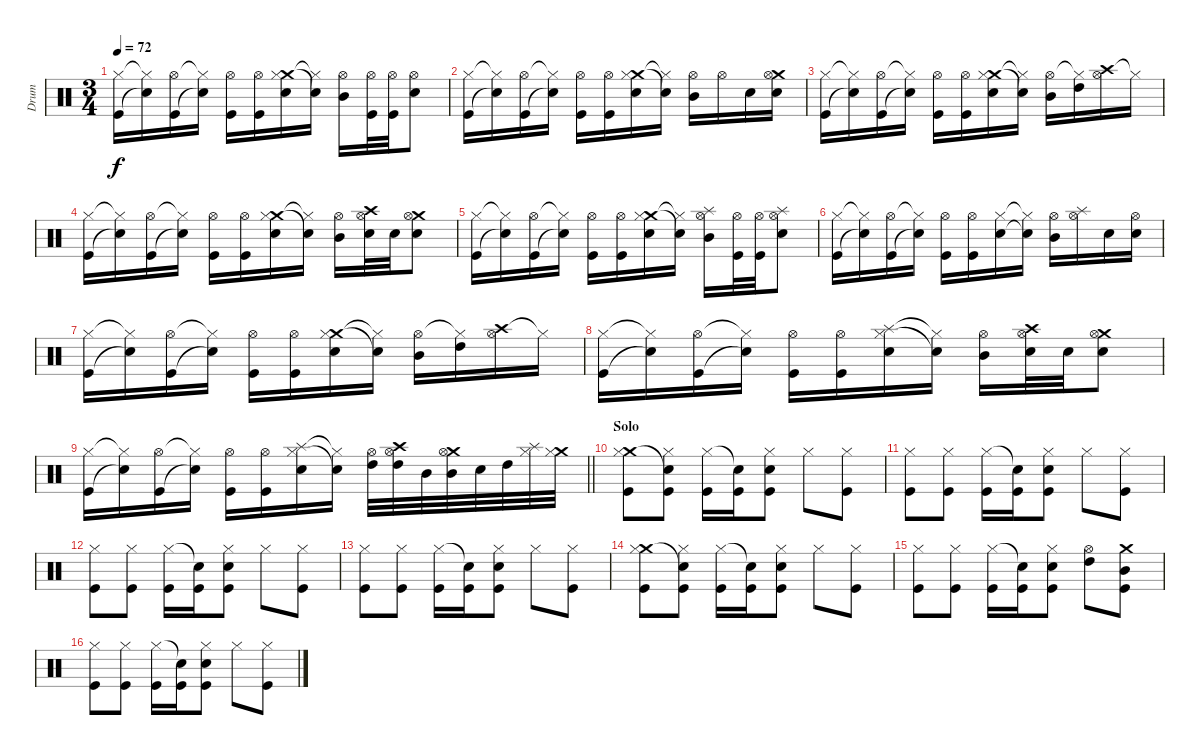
\track ("Drum" "Drum") {instrument percussion}
\staff {score}
\articulation defaults
\ts (3 4)
\tempo 72
\clef neutral
\ks c
("Hi-Hat (closed)" "Kick (hit)").16{dy f} ("Hi-Hat (closed)"{t} "Snare (hit)"{t}).16 ("Hi-Hat (open)" "Kick (hit)").16 ("Hi-Hat (closed)"{t} "Snare (hit)"{t}).16 ("Hi-Hat (open)" "Kick (hit)").16 ("Hi-Hat (open)" "Kick (hit)").16 ("Crash medium (hit)" "Hi-Hat (closed)" "Snare (hit) 2").16 ("Hi-Hat (closed)"{t} "Snare (hit)"{t}).16 ("Hi-Hat (open)" "Mid Tom (hit)").16 ("Hi-Hat (open)" "Kick (hit)").32 ("Hi-Hat (open)" "Kick (hit)").32 ("Hi-Hat (open)" "Snare (hit) 2").8 |
("Hi-Hat (closed)" "Kick (hit)").16 ("Hi-Hat (closed)"{t} "Snare (hit)"{t}).16 ("Hi-Hat (open)" "Kick (hit)").16 ("Hi-Hat (closed)"{t} "Snare (hit)"{t}).16 ("Hi-Hat (open)" "Kick (hit)").16 ("Hi-Hat (open)" "Kick (hit)").16 ("Crash medium (hit)" "Hi-Hat (closed)" "Snare (hit) 2").16 ("Hi-Hat (closed)"{t} "Snare (hit)"{t}).16 ("Hi-Hat (open)" "Mid Tom (hit)").16 "Hi-Hat (open)".16 "Snare (hit) 2".16 ("Crash medium (hit)" "Hi-Hat (open)" "Snare (hit) 2").16 |
("Hi-Hat (closed)" "Kick (hit)").16 ("Hi-Hat (closed)"{t} "Snare (hit)"{t}).16 ("Hi-Hat (open)" "Kick (hit)").16 ("Hi-Hat (closed)"{t} "Snare (hit)"{t}).16 ("Hi-Hat (open)" "Kick (hit)").16 ("Hi-Hat (open)" "Kick (hit)").16 ("Crash medium (hit)" "Hi-Hat (closed)" "Snare (hit) 2").16 ("Hi-Hat (closed)"{t} "Snare (hit)"{t}).16 ("Hi-Hat (open)" "Mid Tom (hit)").16 ("Hi-Hat (closed)"{t} "High Tom (hit)").16 ("Crash high (hit)" "Hi-Hat (open)").16 "Hi-Hat (closed)"{t}.16 |
("Hi-Hat (closed)" "Kick (hit)").16 ("Hi-Hat (closed)"{t} "Snare (hit)"{t}).16 ("Hi-Hat (open)" "Kick (hit)").16 ("Hi-Hat (closed)"{t} "Snare (hit)"{t}).16 ("Hi-Hat (open)" "Kick (hit)").16 ("Hi-Hat (open)" "Kick (hit)").16 ("Crash medium (hit)" "Hi-Hat (closed)" "Snare (hit) 2").16 ("Hi-Hat (closed)"{t} "Snare (hit)"{t}).16 ("Hi-Hat (open)" "Mid Tom (hit)").16 ("Crash high (hit)" "Hi-Hat (open)" "Snare (hit) 2").32 "Snare (hit) 2".32 ("Crash medium (hit)" "Hi-Hat (open)" "Snare (hit) 2").8 |
("Hi-Hat (closed)" "Kick (hit)").16 ("Hi-Hat (closed)"{t} "Snare (hit)"{t}).16 ("Hi-Hat (open)" "Kick (hit)").16 ("Hi-Hat (closed)"{t} "Snare (hit)"{t}).16 ("Hi-Hat (open)" "Kick (hit)").16 ("Hi-Hat (open)" "Kick (hit)").16 ("Crash medium (hit)" "Hi-Hat (closed)" "Snare (hit) 2").16 ("Hi-Hat (closed)"{t} "Snare (hit)"{t}).16 ("Splash (hit)" "Hi-Hat (open)" "Mid Tom (hit)").16 ("Hi-Hat (open)" "Kick (hit)").32 ("Hi-Hat (open)" "Kick (hit)").32 ("Splash (hit)" "Hi-Hat (open)" "Snare (hit) 2").8 |
("Hi-Hat (closed)" "Kick (hit)").16 ("Hi-Hat (closed)"{t} "Snare (hit)"{t}).16 ("Hi-Hat (open)" "Kick (hit)").16 ("Hi-Hat (closed)"{t} "Snare (hit)"{t}).16 ("Hi-Hat (open)" "Kick (hit)").16 ("Hi-Hat (open)" "Kick (hit)").16 ("Hi-Hat (closed)" "Snare (hit) 2").16 ("Hi-Hat (closed)"{t} "Snare (hit)"{t}).16 ("Hi-Hat (open)" "Mid Tom (hit)").16 ("Splash (hit)" "Hi-Hat (open)").16 "Snare (hit) 2".16 ("Hi-Hat (open)" "Snare (hit) 2").16 |
("Hi-Hat (closed)" "Kick (hit)").16 ("Hi-Hat (closed)"{t} "Snare (hit)"{t}).16 ("Hi-Hat (open)" "Kick (hit)").16 ("Hi-Hat (closed)"{t} "Snare (hit)"{t}).16 ("Hi-Hat (open)" "Kick (hit)").16 ("Hi-Hat (open)" "Kick (hit)").16 ("Crash medium (hit)" "Hi-Hat (closed)" "Snare (hit) 2").16 ("Hi-Hat (closed)"{t} "Snare (hit)"{t}).16 ("Hi-Hat (open)" "Mid Tom (hit)").16 ("Hi-Hat (closed)"{t} "High Tom (hit)").16 ("Crash high (hit)" "Hi-Hat (open)").16 "Hi-Hat (closed)"{t}.16 |
("Hi-Hat (closed)" "Kick (hit)").16 ("Hi-Hat (closed)"{t} "Snare (hit)"{t}).16 ("Hi-Hat (open)" "Kick (hit)").16 ("Hi-Hat (closed)"{t} "Snare (hit)"{t}).16 ("Hi-Hat (open)" "Kick (hit)").16 ("Hi-Hat (open)" "Kick (hit)").16 ("Splash (hit)" "Hi-Hat (closed)" "Snare (hit) 2").16 ("Hi-Hat (closed)"{t} "Snare (hit)"{t}).16 ("Hi-Hat (open)" "Mid Tom (hit)").16 ("Crash high (hit)" "Hi-Hat (open)" "Snare (hit) 2").32 "Snare (hit) 2".32 ("Crash medium (hit)" "Hi-Hat (open)" "Snare (hit) 2").8 |
\barLineRight lightlight
("Hi-Hat (closed)" "Kick (hit)").16 ("Hi-Hat (closed)"{t} "Snare (hit)"{t}).16 ("Hi-Hat (open)" "Kick (hit)").16 ("Hi-Hat (closed)"{t} "Snare (hit)"{t}).16 ("Hi-Hat (open)" "Kick (hit)").16 ("Hi-Hat (open)" "Kick (hit)").16 ("Splash (hit)" "Hi-Hat (closed)" "Snare (hit) 2").16 ("Hi-Hat (closed)"{t} "Snare (hit)"{t}).16 ("Hi-Hat (open)" "High Tom (hit)").32 ("Crash high (hit)" "Hi-Hat (open)" "High Tom (hit)").32 "Mid Tom (hit)".32 ("Crash medium (hit)" "Hi-Hat (open)" "Mid Tom (hit)").32 "Snare (hit) 2".32 "High Tom (hit)".32 ("Splash (hit)" "Hi-Hat (closed)").32 ("Crash medium (hit)" "Hi-Hat (closed)").32 |
\section ("" "Solo")
("Crash medium (hit)" "Hi-Hat (closed)" "Kick (hit)").8 ("Snare (hit)"{t} "Hi-Hat (closed)" "Kick (hit)").8 ("Hi-Hat (closed)" "Kick (hit)").16 ("Snare (hit)"{t} "Kick (hit)").16 ("Hi-Hat (closed)" "Kick (hit)" "Snare (hit) 2").8 "Hi-Hat (closed)".8 ("Hi-Hat (closed)" "Kick (hit)").8 |
("Hi-Hat (closed)" "Kick (hit)").8 ("Hi-Hat (closed)" "Kick (hit)").8 ("Hi-Hat (closed)" "Kick (hit)").16 ("Snare (hit)"{t} "Kick (hit)").16 ("Hi-Hat (closed)" "Kick (hit)" "Snare (hit) 2").8 "Hi-Hat (closed)".8 ("Hi-Hat (closed)" "Kick (hit)").8 |
("Hi-Hat (closed)" "Kick (hit)").8 ("Hi-Hat (closed)" "Kick (hit)").8 ("Hi-Hat (closed)" "Kick (hit)").16 ("Snare (hit)"{t} "Kick (hit)").16 ("Hi-Hat (closed)" "Kick (hit)" "Snare (hit) 2").8 "Hi-Hat (closed)".8 ("Hi-Hat (closed)" "Kick (hit)").8 |
("Hi-Hat (closed)" "Kick (hit)").8 ("Hi-Hat (closed)" "Kick (hit)").8 ("Hi-Hat (closed)" "Kick (hit)").16 ("Snare (hit)"{t} "Kick (hit)").16 ("Hi-Hat (closed)" "Kick (hit)" "Snare (hit) 2").8 "Hi-Hat (closed)".8 ("Hi-Hat (closed)" "Kick (hit)").8 |
("Crash medium (hit)" "Hi-Hat (closed)" "Kick (hit)").8 ("Snare (hit)"{t} "Hi-Hat (closed)" "Kick (hit)").8 ("Hi-Hat (closed)" "Kick (hit)").16 ("Snare (hit)"{t} "Kick (hit)").16 ("Hi-Hat (closed)" "Kick (hit)" "Snare (hit) 2").8 "Hi-Hat (closed)".8 ("Hi-Hat (closed)" "Kick (hit)").8 |
("Hi-Hat (closed)" "Kick (hit)").8 ("Hi-Hat (closed)" "Kick (hit)").8 ("Hi-Hat (closed)" "Kick (hit)").16 ("Snare (hit)"{t} "Kick (hit)").16 ("Hi-Hat (closed)" "Kick (hit)" "Snare (hit) 2").8 ("Hi-Hat (open)" "High Tom (hit)").8 ("Crash medium (hit)" "Kick (hit)" "Mid Tom (hit)").8 |
("Hi-Hat (closed)" "Kick (hit)").8 ("Hi-Hat (closed)" "Kick (hit)").8 ("Hi-Hat (closed)" "Kick (hit)").16 ("Snare (hit)"{t} "Kick (hit)").16 ("Hi-Hat (closed)" "Kick (hit)" "Snare (hit) 2").8 "Hi-Hat (closed)".8 ("Hi-Hat (closed)" "Kick (hit)").8
